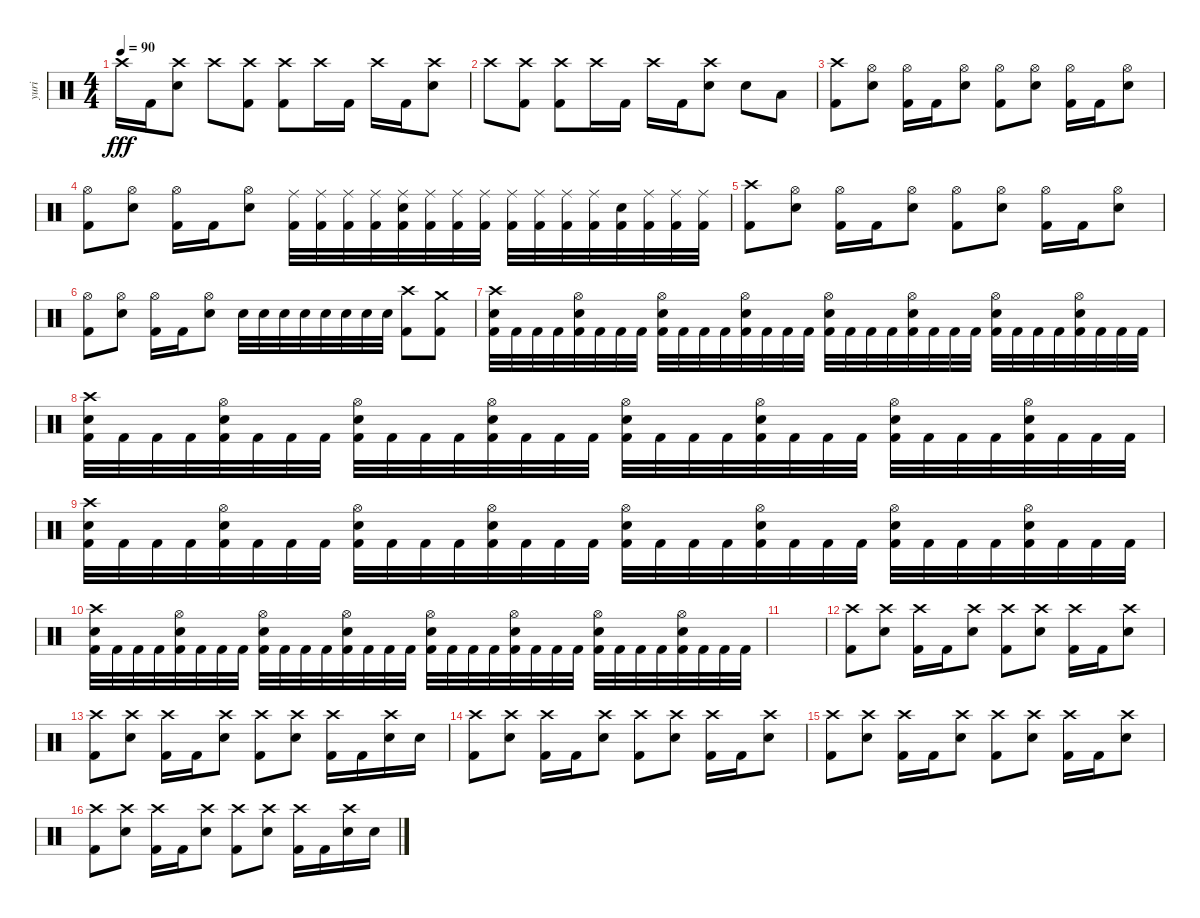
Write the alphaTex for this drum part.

\track ("yuri" "yuri") {instrument percussion}
\staff {score}
\articulation defaults
\ts (4 4)
\tempo 90
\clef neutral
\ks c "Crash high (hit)".16{dy fff} "Kick (hit) 2".16
("Crash high (hit)" "Snare (hit) 2").8 "Crash high (hit)".8 ("Crash high (hit)" "Kick (hit) 2").8 ("Crash high (hit)" "Kick (hit) 2").8 "Crash high (hit)".16 "Kick (hit) 2".16 "Crash high (hit)".16 "Kick (hit) 2".16 ("Crash high (hit)" "Snare (hit) 2").8 |
"Crash high (hit)".8 ("Crash high (hit)" "Kick (hit) 2").8 ("Crash high (hit)" "Kick (hit) 2").8 "Crash high (hit)".16 "Kick (hit) 2".16 "Crash high (hit)".16 "Kick (hit) 2".16 ("Crash high (hit)" "Snare (hit) 2").8 "Snare (hit) 2".8 "Low Tom (hit)".8 |
("Crash high (hit)" "Kick (hit) 2").8 ("Hi-Hat (open)" "Snare (hit) 2").8 ("Hi-Hat (open)" "Kick (hit) 2").16 "Kick (hit) 2".16 ("Hi-Hat (open)" "Snare (hit) 2").8 ("Hi-Hat (open)" "Kick (hit) 2").8 ("Hi-Hat (open)" "Snare (hit) 2").8 ("Hi-Hat (open)" "Kick (hit) 2").16 "Kick (hit) 2".16 ("Hi-Hat (open)" "Snare (hit) 2").8 |
("Hi-Hat (open)" "Kick (hit) 2").8 ("Hi-Hat (open)" "Snare (hit) 2").8 ("Hi-Hat (open)" "Kick (hit) 2").16 "Kick (hit) 2".16 ("Hi-Hat (open)" "Snare (hit) 2").8 ("Ride (middle)" "Kick (hit) 2").32 ("Ride (middle)" "Kick (hit) 2").32 ("Ride (middle)" "Kick (hit) 2").32 ("Ride (middle)" "Kick (hit) 2").32 ("Ride (middle)" "Snare (hit) 2" "Kick (hit) 2").32 ("Ride (middle)" "Kick (hit) 2").32 ("Ride (middle)" "Kick (hit) 2").32 ("Ride (middle)" "Kick (hit) 2").32 ("Ride (middle)" "Kick (hit) 2").32 ("Ride (middle)" "Kick (hit) 2").32 ("Ride (middle)" "Kick (hit) 2").32 ("Ride (middle)" "Kick (hit) 2").32 ("Snare (hit) 2" "Kick (hit) 2").32 ("Ride (middle)" "Kick (hit) 2").32 ("Ride (middle)" "Kick (hit) 2").32 ("Ride (middle)" "Kick (hit) 2").32 |
("Crash high (hit)" "Kick (hit) 2").8 ("Hi-Hat (open)" "Snare (hit) 2").8 ("Hi-Hat (open)" "Kick (hit) 2").16 "Kick (hit) 2".16 ("Hi-Hat (open)" "Snare (hit) 2").8 ("Hi-Hat (open)" "Kick (hit) 2").8 ("Hi-Hat (open)" "Snare (hit) 2").8 ("Hi-Hat (open)" "Kick (hit) 2").16 "Kick (hit) 2".16 ("Hi-Hat (open)" "Snare (hit) 2").8 |
("Hi-Hat (open)" "Kick (hit) 2").8 ("Hi-Hat (open)" "Snare (hit) 2").8 ("Hi-Hat (open)" "Kick (hit) 2").16 "Kick (hit) 2".16 ("Hi-Hat (open)" "Snare (hit) 2").8 "Snare (hit) 2".32 "Snare (hit) 2".32 "Snare (hit) 2".32 "Snare (hit) 2".32 "Snare (hit) 2".32 "Snare (hit) 2".32 "Snare (hit) 2".32 "Snare (hit) 2".32 ("Crash high (hit)" "Kick (hit) 2").8 ("Crash medium (hit)" "Kick (hit) 2").8 |
("Crash high (hit)" "Snare (hit) 2" "Kick (hit) 2").32 "Kick (hit) 2".32 "Kick (hit) 2".32 "Kick (hit) 2".32 ("Hi-Hat (open)" "Snare (hit) 2" "Kick (hit) 2").32 "Kick (hit) 2".32 "Kick (hit) 2".32 "Kick (hit) 2".32 ("Hi-Hat (open)" "Snare (hit) 2" "Kick (hit) 2").32 "Kick (hit) 2".32 "Kick (hit) 2".32 "Kick (hit) 2".32 ("Hi-Hat (open)" "Snare (hit) 2" "Kick (hit) 2").32 "Kick (hit) 2".32 "Kick (hit) 2".32 "Kick (hit) 2".32 ("Hi-Hat (open)" "Snare (hit) 2" "Kick (hit) 2").32 "Kick (hit) 2".32 "Kick (hit) 2".32 "Kick (hit) 2".32 ("Hi-Hat (open)" "Snare (hit) 2" "Kick (hit) 2").32 "Kick (hit) 2".32 "Kick (hit) 2".32 "Kick (hit) 2".32 ("Hi-Hat (open)" "Snare (hit) 2" "Kick (hit) 2").32 "Kick (hit) 2".32 "Kick (hit) 2".32 "Kick (hit) 2".32 ("Hi-Hat (open)" "Snare (hit) 2" "Kick (hit) 2").32 "Kick (hit) 2".32 "Kick (hit) 2".32 "Kick (hit) 2".32 |
("Crash high (hit)" "Snare (hit) 2" "Kick (hit) 2").32 "Kick (hit) 2".32 "Kick (hit) 2".32 "Kick (hit) 2".32 ("Hi-Hat (open)" "Snare (hit) 2" "Kick (hit) 2").32 "Kick (hit) 2".32 "Kick (hit) 2".32 "Kick (hit) 2".32 ("Hi-Hat (open)" "Snare (hit) 2" "Kick (hit) 2").32 "Kick (hit) 2".32 "Kick (hit) 2".32 "Kick (hit) 2".32 ("Hi-Hat (open)" "Snare (hit) 2" "Kick (hit) 2").32 "Kick (hit) 2".32 "Kick (hit) 2".32 "Kick (hit) 2".32 ("Hi-Hat (open)" "Snare (hit) 2" "Kick (hit) 2").32 "Kick (hit) 2".32 "Kick (hit) 2".32 "Kick (hit) 2".32 ("Hi-Hat (open)" "Snare (hit) 2" "Kick (hit) 2").32 "Kick (hit) 2".32 "Kick (hit) 2".32 "Kick (hit) 2".32 ("Hi-Hat (open)" "Snare (hit) 2" "Kick (hit) 2").32 "Kick (hit) 2".32 "Kick (hit) 2".32 "Kick (hit) 2".32 ("Hi-Hat (open)" "Snare (hit) 2" "Kick (hit) 2").32 "Kick (hit) 2".32 "Kick (hit) 2".32 "Kick (hit) 2".32 |
("Crash high (hit)" "Snare (hit) 2" "Kick (hit) 2").32 "Kick (hit) 2".32 "Kick (hit) 2".32 "Kick (hit) 2".32 ("Hi-Hat (open)" "Snare (hit) 2" "Kick (hit) 2").32 "Kick (hit) 2".32 "Kick (hit) 2".32 "Kick (hit) 2".32 ("Hi-Hat (open)" "Snare (hit) 2" "Kick (hit) 2").32 "Kick (hit) 2".32 "Kick (hit) 2".32 "Kick (hit) 2".32 ("Hi-Hat (open)" "Snare (hit) 2" "Kick (hit) 2").32 "Kick (hit) 2".32 "Kick (hit) 2".32 "Kick (hit) 2".32 ("Hi-Hat (open)" "Snare (hit) 2" "Kick (hit) 2").32 "Kick (hit) 2".32 "Kick (hit) 2".32 "Kick (hit) 2".32 ("Hi-Hat (open)" "Snare (hit) 2" "Kick (hit) 2").32 "Kick (hit) 2".32 "Kick (hit) 2".32 "Kick (hit) 2".32 ("Hi-Hat (open)" "Snare (hit) 2" "Kick (hit) 2").32 "Kick (hit) 2".32 "Kick (hit) 2".32 "Kick (hit) 2".32 ("Hi-Hat (open)" "Snare (hit) 2" "Kick (hit) 2").32 "Kick (hit) 2".32 "Kick (hit) 2".32 "Kick (hit) 2".32 |
("Crash high (hit)" "Snare (hit) 2" "Kick (hit) 2").32 "Kick (hit) 2".32 "Kick (hit) 2".32 "Kick (hit) 2".32 ("Hi-Hat (open)" "Snare (hit) 2" "Kick (hit) 2").32 "Kick (hit) 2".32 "Kick (hit) 2".32 "Kick (hit) 2".32 ("Hi-Hat (open)" "Snare (hit) 2" "Kick (hit) 2").32 "Kick (hit) 2".32 "Kick (hit) 2".32 "Kick (hit) 2".32 ("Hi-Hat (open)" "Snare (hit) 2" "Kick (hit) 2").32 "Kick (hit) 2".32 "Kick (hit) 2".32 "Kick (hit) 2".32 ("Hi-Hat (open)" "Snare (hit) 2" "Kick (hit) 2").32 "Kick (hit) 2".32 "Kick (hit) 2".32 "Kick (hit) 2".32 ("Hi-Hat (open)" "Snare (hit) 2" "Kick (hit) 2").32 "Kick (hit) 2".32 "Kick (hit) 2".32 "Kick (hit) 2".32 ("Hi-Hat (open)" "Snare (hit) 2" "Kick (hit) 2").32 "Kick (hit) 2".32 "Kick (hit) 2".32 "Kick (hit) 2".32 ("Hi-Hat (open)" "Snare (hit) 2" "Kick (hit) 2").32 "Kick (hit) 2".32 "Kick (hit) 2".32 "Kick (hit) 2".32 |
|
("Crash high (hit)" "Kick (hit) 2").8 ("Crash high (hit)" "Snare (hit) 2").8 ("Crash high (hit)" "Kick (hit) 2").16 "Kick (hit) 2".16 ("Crash high (hit)" "Snare (hit) 2").8 ("Crash high (hit)" "Kick (hit) 2").8 ("Crash high (hit)" "Snare (hit) 2").8 ("Crash high (hit)" "Kick (hit) 2").16 "Kick (hit) 2".16 ("Crash high (hit)" "Snare (hit) 2").8 |
("Crash high (hit)" "Kick (hit) 2").8 ("Crash high (hit)" "Snare (hit) 2").8 ("Crash high (hit)" "Kick (hit) 2").16 "Kick (hit) 2".16 ("Crash high (hit)" "Snare (hit) 2").8 ("Crash high (hit)" "Kick (hit) 2").8 ("Crash high (hit)" "Snare (hit) 2").8 ("Crash high (hit)" "Kick (hit) 2").16 "Kick (hit) 2".16 ("Crash high (hit)" "Snare (hit) 2").16 "Snare (hit) 2".16 |
("Crash high (hit)" "Kick (hit) 2").8 ("Crash high (hit)" "Snare (hit) 2").8 ("Crash high (hit)" "Kick (hit) 2").16 "Kick (hit) 2".16 ("Crash high (hit)" "Snare (hit) 2").8 ("Crash high (hit)" "Kick (hit) 2").8 ("Crash high (hit)" "Snare (hit) 2").8 ("Crash high (hit)" "Kick (hit) 2").16 "Kick (hit) 2".16 ("Crash high (hit)" "Snare (hit) 2").8 |
("Crash high (hit)" "Kick (hit) 2").8 ("Crash high (hit)" "Snare (hit) 2").8 ("Crash high (hit)" "Kick (hit) 2").16 "Kick (hit) 2".16 ("Crash high (hit)" "Snare (hit) 2").8 ("Crash high (hit)" "Kick (hit) 2").8 ("Crash high (hit)" "Snare (hit) 2").8 ("Crash high (hit)" "Kick (hit) 2").16 "Kick (hit) 2".16 ("Crash high (hit)" "Snare (hit) 2").8 |
("Crash high (hit)" "Kick (hit) 2").8 ("Crash high (hit)" "Snare (hit) 2").8 ("Crash high (hit)" "Kick (hit) 2").16 "Kick (hit) 2".16 ("Crash high (hit)" "Snare (hit) 2").8 ("Crash high (hit)" "Kick (hit) 2").8 ("Crash high (hit)" "Snare (hit) 2").8 ("Crash high (hit)" "Kick (hit) 2").16 "Kick (hit) 2".16 ("Crash high (hit)" "Snare (hit) 2").16 "Snare (hit) 2".16
